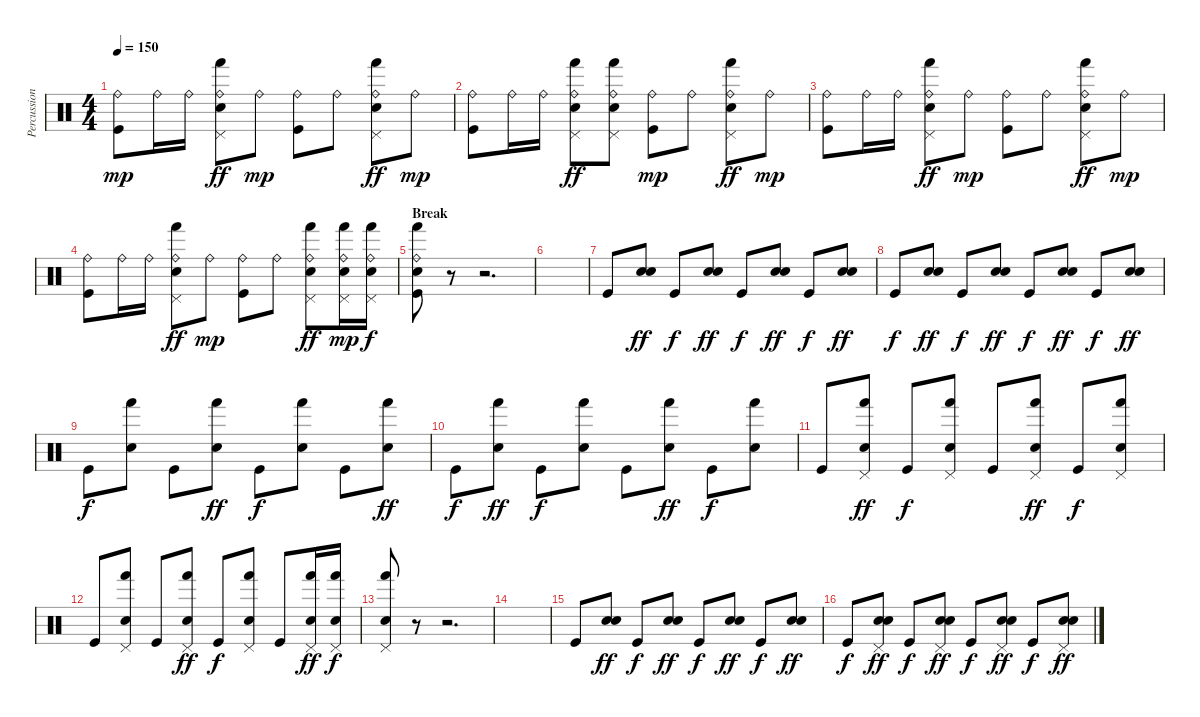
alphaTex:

\track ("Percussion" "Percussion") {instrument percussion}
\staff {score}
\articulation defaults
\ts (4 4)
\tempo 150
\clef neutral
\ks c
("Ride (bell)" "Kick (hit)").8{dy mp} "Ride (bell)".16 "Ride (bell)".16 ("Ride (bell)" "Pedal Hi-Hat (hit)" "Hand (hit)" "Electric Snare (hit)").8{dy ff} "Ride (bell)".8{dy mp} ("Ride (bell)" "Kick (hit)").8 "Ride (bell)".8 ("Ride (bell)" "Pedal Hi-Hat (hit)" "Hand (hit)" "Electric Snare (hit)").8{dy ff} "Ride (bell)".8{dy mp} |
("Ride (bell)" "Kick (hit)").8 "Ride (bell)".16 "Ride (bell)".16 ("Ride (bell)" "Pedal Hi-Hat (hit)" "Hand (hit)" "Electric Snare (hit)").8{dy ff} ("Ride (bell)" "Pedal Hi-Hat (hit)" "Hand (hit)" "Electric Snare (hit)").8 ("Ride (bell)" "Kick (hit)").8{dy mp} "Ride (bell)".8 ("Ride (bell)" "Pedal Hi-Hat (hit)" "Hand (hit)" "Electric Snare (hit)").8{dy ff} "Ride (bell)".8{dy mp} |
("Ride (bell)" "Kick (hit)").8 "Ride (bell)".16 "Ride (bell)".16 ("Ride (bell)" "Pedal Hi-Hat (hit)" "Hand (hit)" "Electric Snare (hit)").8{dy ff} "Ride (bell)".8{dy mp} ("Ride (bell)" "Kick (hit)").8 "Ride (bell)".8 ("Ride (bell)" "Pedal Hi-Hat (hit)" "Hand (hit)" "Electric Snare (hit)").8{dy ff} "Ride (bell)".8{dy mp} |
("Ride (bell)" "Kick (hit)").8 "Ride (bell)".16 "Ride (bell)".16 ("Ride (bell)" "Pedal Hi-Hat (hit)" "Hand (hit)" "Electric Snare (hit)").8{dy ff} "Ride (bell)".8{dy mp} ("Ride (bell)" "Kick (hit)").8 "Ride (bell)".8 ("Ride (bell)" "Pedal Hi-Hat (hit)" "Hand (hit)" "Electric Snare (hit)").8{dy ff} ("Ride (bell)" "Pedal Hi-Hat (hit)" "Hand (hit)" "Electric Snare (hit)").16{dy mp} ("Ride (bell)" "Pedal Hi-Hat (hit)" "Hand (hit)" "Electric Snare (hit)").16{dy f} |
\section ("" "Break")
("Ride (bell)" "Hand (hit)" "Electric Snare (hit)" "Kick (hit)").8 r.8 r.2{d} |
|
"Kick (hit)".8 ("Snare (hit) 2" "Electric Snare (hit)").8{dy ff} "Kick (hit)".8{dy f} ("Snare (hit) 2" "Electric Snare (hit)").8{dy ff} "Kick (hit)".8{dy f} ("Snare (hit) 2" "Electric Snare (hit)").8{dy ff} "Kick (hit)".8{dy f} ("Snare (hit) 2" "Electric Snare (hit)").8{dy ff} |
"Kick (hit)".8{dy f} ("Snare (hit) 2" "Electric Snare (hit)").8{dy ff} "Kick (hit)".8{dy f} ("Snare (hit) 2" "Electric Snare (hit)").8{dy ff} "Kick (hit)".8{dy f} ("Snare (hit) 2" "Electric Snare (hit)").8{dy ff} "Kick (hit)".8{dy f} ("Snare (hit) 2" "Electric Snare (hit)").8{dy ff} |
"Kick (hit)".8{dy f} ("Hand (hit)" "Electric Snare (hit)").8 "Kick (hit)".8 ("Hand (hit)" "Electric Snare (hit)").8{dy ff} "Kick (hit)".8{dy f} ("Hand (hit)" "Electric Snare (hit)").8 "Kick (hit)".8 ("Hand (hit)" "Electric Snare (hit)").8{dy ff} |
"Kick (hit)".8{dy f} ("Hand (hit)" "Electric Snare (hit)").8{dy ff} "Kick (hit)".8{dy f} ("Hand (hit)" "Electric Snare (hit)").8 "Kick (hit)".8 ("Hand (hit)" "Electric Snare (hit)").8{dy ff} "Kick (hit)".8{dy f} ("Hand (hit)" "Electric Snare (hit)").8 |
"Kick (hit)".8 ("Pedal Hi-Hat (hit)" "Hand (hit)" "Electric Snare (hit)").8{dy ff} "Kick (hit)".8{dy f} ("Pedal Hi-Hat (hit)" "Hand (hit)" "Electric Snare (hit)").8 "Kick (hit)".8 ("Pedal Hi-Hat (hit)" "Hand (hit)" "Electric Snare (hit)").8{dy ff} "Kick (hit)".8{dy f} ("Pedal Hi-Hat (hit)" "Hand (hit)" "Electric Snare (hit)").8 |
"Kick (hit)".8 ("Pedal Hi-Hat (hit)" "Hand (hit)" "Electric Snare (hit)").8 "Kick (hit)".8 ("Pedal Hi-Hat (hit)" "Hand (hit)" "Electric Snare (hit)").8{dy ff} "Kick (hit)".8{dy f} ("Pedal Hi-Hat (hit)" "Hand (hit)" "Electric Snare (hit)").8 "Kick (hit)".8 ("Pedal Hi-Hat (hit)" "Hand (hit)" "Electric Snare (hit)").16{dy ff} ("Pedal Hi-Hat (hit)" "Hand (hit)" "Electric Snare (hit)").16{dy f} |
("Pedal Hi-Hat (hit)" "Hand (hit)" "Electric Snare (hit)").8 r.8 r.2{d} |
|
"Kick (hit)".8 ("Snare (hit) 2" "Electric Snare (hit)").8{dy ff} "Kick (hit)".8{dy f} ("Snare (hit) 2" "Electric Snare (hit)").8{dy ff} "Kick (hit)".8{dy f} ("Snare (hit) 2" "Electric Snare (hit)").8{dy ff} "Kick (hit)".8{dy f} ("Snare (hit) 2" "Electric Snare (hit)").8{dy ff} |
"Kick (hit)".8{dy f} ("Pedal Hi-Hat (hit)" "Snare (hit) 2" "Electric Snare (hit)").8{dy ff} "Kick (hit)".8{dy f} ("Pedal Hi-Hat (hit)" "Snare (hit) 2" "Electric Snare (hit)").8{dy ff} "Kick (hit)".8{dy f} ("Pedal Hi-Hat (hit)" "Snare (hit) 2" "Electric Snare (hit)").8{dy ff} "Kick (hit)".8{dy f} ("Pedal Hi-Hat (hit)" "Snare (hit) 2" "Electric Snare (hit)").8{dy ff}
